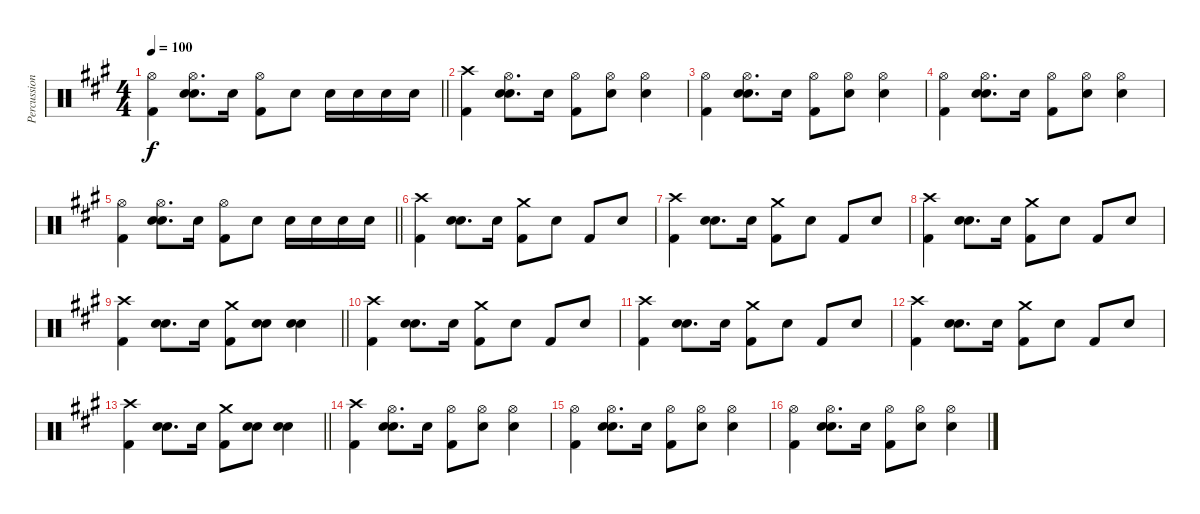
\track ("Percussion" "Percussion") {instrument percussion}
\staff {score}
\articulation defaults
\ts (4 4)
\tempo 100
\clef neutral
\barLineRight lightlight
\ks f#minor
("Hi-Hat (open)" "Kick (hit) 2").4{dy f} ("Hi-Hat (open)" "Snare (hit) 2" "Snare (hit) 2").8{d} "Snare (hit) 2".16 ("Hi-Hat (open)" "Kick (hit) 2").8 "Snare (hit) 2".8 "Snare (hit) 2".16 "Snare (hit) 2".16 "Snare (hit) 2".16 "Snare (hit) 2".16 |
("Crash high (hit)" "Kick (hit) 2").4 ("Hi-Hat (open)" "Snare (hit) 2" "Snare (hit) 2").8{d} "Snare (hit) 2".16 ("Hi-Hat (open)" "Kick (hit) 2").8 ("Hi-Hat (open)" "Snare (hit) 2").8 ("Hi-Hat (open)" "Snare (hit) 2").4 |
("Hi-Hat (open)" "Kick (hit) 2").4 ("Hi-Hat (open)" "Snare (hit) 2" "Snare (hit) 2").8{d} "Snare (hit) 2".16 ("Hi-Hat (open)" "Kick (hit) 2").8 ("Hi-Hat (open)" "Snare (hit) 2").8 ("Hi-Hat (open)" "Snare (hit) 2").4 |
("Hi-Hat (open)" "Kick (hit) 2").4 ("Hi-Hat (open)" "Snare (hit) 2" "Snare (hit) 2").8{d} "Snare (hit) 2".16 ("Hi-Hat (open)" "Kick (hit) 2").8 ("Hi-Hat (open)" "Snare (hit) 2").8 ("Hi-Hat (open)" "Snare (hit) 2").4 |
\barLineRight lightlight
("Hi-Hat (open)" "Kick (hit) 2").4 ("Hi-Hat (open)" "Snare (hit) 2" "Snare (hit) 2").8{d} "Snare (hit) 2".16 ("Hi-Hat (open)" "Kick (hit) 2").8 "Snare (hit) 2".8 "Snare (hit) 2".16 "Snare (hit) 2".16 "Snare (hit) 2".16 "Snare (hit) 2".16 |
("Crash high (hit)" "Kick (hit) 2").4 ("Snare (hit) 2" "Snare (hit) 2").8{d} "Snare (hit) 2".16 ("Crash medium (hit)" "Kick (hit) 2").8 "Snare (hit) 2".8 "Kick (hit) 2".8 "Snare (hit) 2".8 |
("Crash high (hit)" "Kick (hit) 2").4 ("Snare (hit) 2" "Snare (hit) 2").8{d} "Snare (hit) 2".16 ("Crash medium (hit)" "Kick (hit) 2").8 "Snare (hit) 2".8 "Kick (hit) 2".8 "Snare (hit) 2".8 |
("Crash high (hit)" "Kick (hit) 2").4 ("Snare (hit) 2" "Snare (hit) 2").8{d} "Snare (hit) 2".16 ("Crash medium (hit)" "Kick (hit) 2").8 "Snare (hit) 2".8 "Kick (hit) 2".8 "Snare (hit) 2".8 |
\barLineRight lightlight
("Crash high (hit)" "Kick (hit) 2").4 ("Snare (hit) 2" "Snare (hit) 2").8{d} "Snare (hit) 2".16 ("Crash medium (hit)" "Kick (hit) 2").8 ("Snare (hit) 2" "Snare (hit) 2").8 ("Snare (hit) 2" "Snare (hit) 2").4 |
("Crash high (hit)" "Kick (hit) 2").4 ("Snare (hit) 2" "Snare (hit) 2").8{d} "Snare (hit) 2".16 ("Crash medium (hit)" "Kick (hit) 2").8 "Snare (hit) 2".8 "Kick (hit) 2".8 "Snare (hit) 2".8 |
("Crash high (hit)" "Kick (hit) 2").4 ("Snare (hit) 2" "Snare (hit) 2").8{d} "Snare (hit) 2".16 ("Crash medium (hit)" "Kick (hit) 2").8 "Snare (hit) 2".8 "Kick (hit) 2".8 "Snare (hit) 2".8 |
("Crash high (hit)" "Kick (hit) 2").4 ("Snare (hit) 2" "Snare (hit) 2").8{d} "Snare (hit) 2".16 ("Crash medium (hit)" "Kick (hit) 2").8 "Snare (hit) 2".8 "Kick (hit) 2".8 "Snare (hit) 2".8 |
\barLineRight lightlight
("Crash high (hit)" "Kick (hit) 2").4 ("Snare (hit) 2" "Snare (hit) 2").8{d} "Snare (hit) 2".16 ("Crash medium (hit)" "Kick (hit) 2").8 ("Snare (hit) 2" "Snare (hit) 2").8 ("Snare (hit) 2" "Snare (hit) 2").4 |
("Crash high (hit)" "Kick (hit) 2").4 ("Hi-Hat (open)" "Snare (hit) 2" "Snare (hit) 2").8{d} "Snare (hit) 2".16 ("Hi-Hat (open)" "Kick (hit) 2").8 ("Hi-Hat (open)" "Snare (hit) 2").8 ("Hi-Hat (open)" "Snare (hit) 2").4 |
("Hi-Hat (open)" "Kick (hit) 2").4 ("Hi-Hat (open)" "Snare (hit) 2" "Snare (hit) 2").8{d} "Snare (hit) 2".16 ("Hi-Hat (open)" "Kick (hit) 2").8 ("Hi-Hat (open)" "Snare (hit) 2").8 ("Hi-Hat (open)" "Snare (hit) 2").4 |
("Hi-Hat (open)" "Kick (hit) 2").4 ("Hi-Hat (open)" "Snare (hit) 2" "Snare (hit) 2").8{d} "Snare (hit) 2".16 ("Hi-Hat (open)" "Kick (hit) 2").8 ("Hi-Hat (open)" "Snare (hit) 2").8 ("Hi-Hat (open)" "Snare (hit) 2").4
